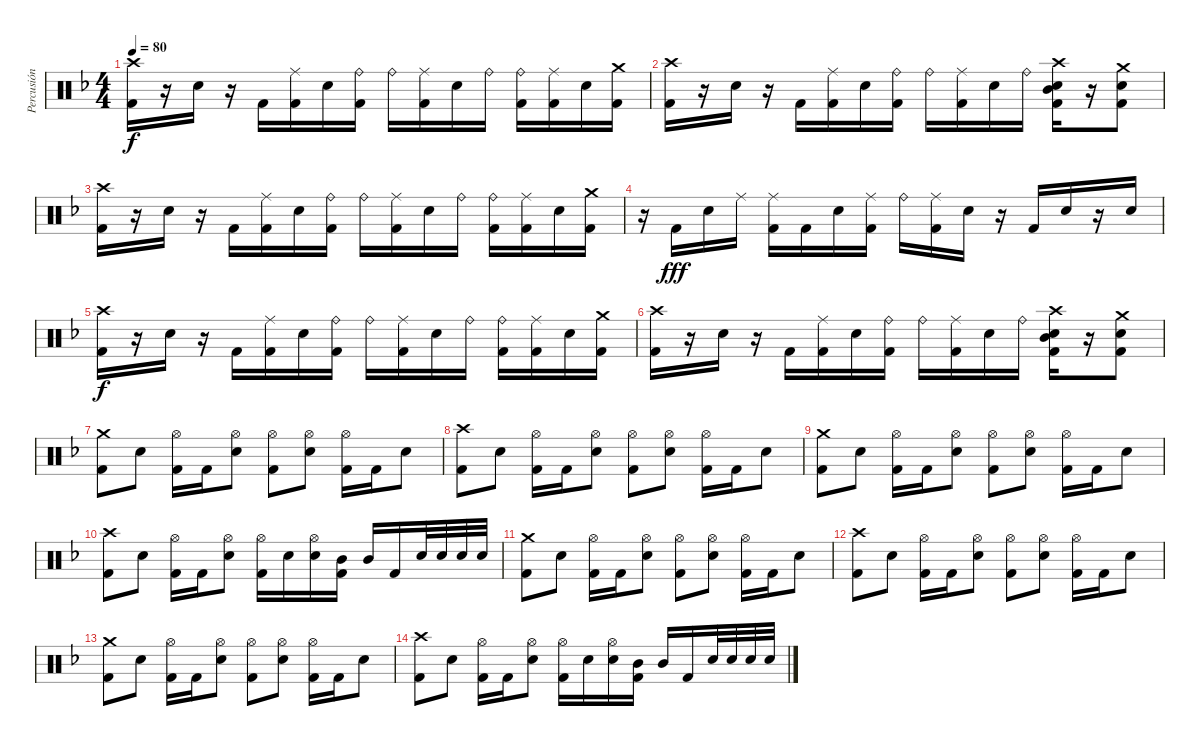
\track ("Percusión" "Percusión") {instrument percussion}
\staff {score}
\articulation defaults
\ts (4 4)
\tempo 80
\clef neutral
\ks f
("Crash high (hit)" "Kick (hit) 2").16{dy f} r.16 "Electric Snare (hit)".16 r.16 "Kick (hit) 2".16 ("Ride (middle)" "Kick (hit) 2").16 "Electric Snare (hit)".16 ("Ride (bell)" "Kick (hit) 2").16 "Ride (bell)".16 ("Ride (middle)" "Kick (hit) 2").16 "Electric Snare (hit)".16 "Ride (bell)".16 ("Ride (bell)" "Kick (hit) 2").16 ("Ride (middle)" "Kick (hit) 2").16 "Electric Snare (hit)".16 ("Crash medium (hit)" "Kick (hit) 2").16 |
("Crash high (hit)" "Kick (hit) 2").16 r.16 "Electric Snare (hit)".16 r.16 "Kick (hit) 2".16 ("Ride (middle)" "Kick (hit) 2").16 "Electric Snare (hit)".16 ("Ride (bell)" "Kick (hit) 2").16 "Ride (bell)".16 ("Ride (middle)" "Kick (hit) 2").16 "Electric Snare (hit)".16 "Ride (bell)".16 ("Crash high (hit)" "Electric Snare (hit)" "Mid Tom (hit)" "Kick (hit) 2").16 r.16 ("Crash medium (hit)" "Electric Snare (hit)" "Kick (hit) 2").8 |
("Crash high (hit)" "Kick (hit) 2").16 r.16 "Electric Snare (hit)".16 r.16 "Kick (hit) 2".16 ("Ride (middle)" "Kick (hit) 2").16 "Electric Snare (hit)".16 ("Ride (bell)" "Kick (hit) 2").16 "Ride (bell)".16 ("Ride (middle)" "Kick (hit) 2").16 "Electric Snare (hit)".16 "Ride (bell)".16 ("Ride (bell)" "Kick (hit) 2").16 ("Ride (middle)" "Kick (hit) 2").16 "Electric Snare (hit)".16 ("Crash medium (hit)" "Kick (hit) 2").16 |
r.16 "Kick (hit) 2".16{dy fff} "Electric Snare (hit)".16 "Ride (middle)".16 ("Ride (middle)" "Kick (hit) 2").16 "Kick (hit) 2".16 "Electric Snare (hit)".16 ("Ride (middle)" "Kick (hit) 2").16 "Ride (bell)".16 ("Ride (middle)" "Kick (hit) 2").16 "Electric Snare (hit)".16 r.16 "Kick (hit) 2".16 "Electric Snare (hit)".16 r.16 "Electric Snare (hit)".16 |
("Crash high (hit)" "Kick (hit) 2").16{dy f} r.16 "Electric Snare (hit)".16 r.16 "Kick (hit) 2".16 ("Ride (middle)" "Kick (hit) 2").16 "Electric Snare (hit)".16 ("Ride (bell)" "Kick (hit) 2").16 "Ride (bell)".16 ("Ride (middle)" "Kick (hit) 2").16 "Electric Snare (hit)".16 "Ride (bell)".16 ("Ride (bell)" "Kick (hit) 2").16 ("Ride (middle)" "Kick (hit) 2").16 "Electric Snare (hit)".16 ("Crash medium (hit)" "Kick (hit) 2").16 |
("Crash high (hit)" "Kick (hit) 2").16 r.16 "Electric Snare (hit)".16 r.16 "Kick (hit) 2".16 ("Ride (middle)" "Kick (hit) 2").16 "Electric Snare (hit)".16 ("Ride (bell)" "Kick (hit) 2").16 "Ride (bell)".16 ("Ride (middle)" "Kick (hit) 2").16 "Electric Snare (hit)".16 "Ride (bell)".16 ("Crash high (hit)" "Electric Snare (hit)" "Mid Tom (hit)" "Kick (hit) 2").16 r.16 ("Crash medium (hit)" "Electric Snare (hit)" "Kick (hit) 2").8 |
("Crash medium (hit)" "Kick (hit) 2").8 "Electric Snare (hit)".8 ("Hi-Hat (open)" "Kick (hit) 2").16 "Kick (hit) 2".16 ("Hi-Hat (open)" "Electric Snare (hit)").8 ("Hi-Hat (open)" "Kick (hit) 2").8 ("Hi-Hat (open)" "Electric Snare (hit)").8 ("Hi-Hat (open)" "Kick (hit) 2").16 "Kick (hit) 2".16 "Electric Snare (hit)".8 |
("Crash high (hit)" "Kick (hit) 2").8 "Electric Snare (hit)".8 ("Hi-Hat (open)" "Kick (hit) 2").16 "Kick (hit) 2".16 ("Hi-Hat (open)" "Electric Snare (hit)").8 ("Hi-Hat (open)" "Kick (hit) 2").8 ("Hi-Hat (open)" "Electric Snare (hit)").8 ("Hi-Hat (open)" "Kick (hit) 2").16 "Kick (hit) 2".16 "Electric Snare (hit)".8 |
("Crash medium (hit)" "Kick (hit) 2").8 "Electric Snare (hit)".8 ("Hi-Hat (open)" "Kick (hit) 2").16 "Kick (hit) 2".16 ("Hi-Hat (open)" "Electric Snare (hit)").8 ("Hi-Hat (open)" "Kick (hit) 2").8 ("Hi-Hat (open)" "Electric Snare (hit)").8 ("Hi-Hat (open)" "Kick (hit) 2").16 "Kick (hit) 2".16 "Electric Snare (hit)".8 |
("Crash high (hit)" "Kick (hit) 2").8 "Electric Snare (hit)".8 ("Hi-Hat (open)" "Kick (hit) 2").16 "Kick (hit) 2".16 ("Hi-Hat (open)" "Electric Snare (hit)").8 ("Hi-Hat (open)" "Kick (hit) 2").16 "Electric Snare (hit)".16 ("Hi-Hat (open)" "Electric Snare (hit)").16 ("Mid Tom (hit)" "Kick (hit) 2").16 "Mid Tom (hit)".16 "Kick (hit) 2".16 "Electric Snare (hit)".32 "Electric Snare (hit)".32 "Electric Snare (hit)".32 "Electric Snare (hit)".32 |
("Crash medium (hit)" "Kick (hit) 2").8{volume 0} "Electric Snare (hit)".8 ("Hi-Hat (open)" "Kick (hit) 2").16 "Kick (hit) 2".16 ("Hi-Hat (open)" "Electric Snare (hit)").8 ("Hi-Hat (open)" "Kick (hit) 2").8 ("Hi-Hat (open)" "Electric Snare (hit)").8 ("Hi-Hat (open)" "Kick (hit) 2").16 "Kick (hit) 2".16 "Electric Snare (hit)".8 |
("Crash high (hit)" "Kick (hit) 2").8 "Electric Snare (hit)".8 ("Hi-Hat (open)" "Kick (hit) 2").16 "Kick (hit) 2".16 ("Hi-Hat (open)" "Electric Snare (hit)").8 ("Hi-Hat (open)" "Kick (hit) 2").8 ("Hi-Hat (open)" "Electric Snare (hit)").8 ("Hi-Hat (open)" "Kick (hit) 2").16 "Kick (hit) 2".16 "Electric Snare (hit)".8 |
("Crash medium (hit)" "Kick (hit) 2").8 "Electric Snare (hit)".8 ("Hi-Hat (open)" "Kick (hit) 2").16 "Kick (hit) 2".16 ("Hi-Hat (open)" "Electric Snare (hit)").8 ("Hi-Hat (open)" "Kick (hit) 2").8 ("Hi-Hat (open)" "Electric Snare (hit)").8 ("Hi-Hat (open)" "Kick (hit) 2").16 "Kick (hit) 2".16 "Electric Snare (hit)".8 |
("Crash high (hit)" "Kick (hit) 2").8 "Electric Snare (hit)".8 ("Hi-Hat (open)" "Kick (hit) 2").16 "Kick (hit) 2".16 ("Hi-Hat (open)" "Electric Snare (hit)").8 ("Hi-Hat (open)" "Kick (hit) 2").16 "Electric Snare (hit)".16 ("Hi-Hat (open)" "Electric Snare (hit)").16 ("Mid Tom (hit)" "Kick (hit) 2").16 "Mid Tom (hit)".16 "Kick (hit) 2".16 "Electric Snare (hit)".32 "Electric Snare (hit)".32 "Electric Snare (hit)".32 "Electric Snare (hit)".32
